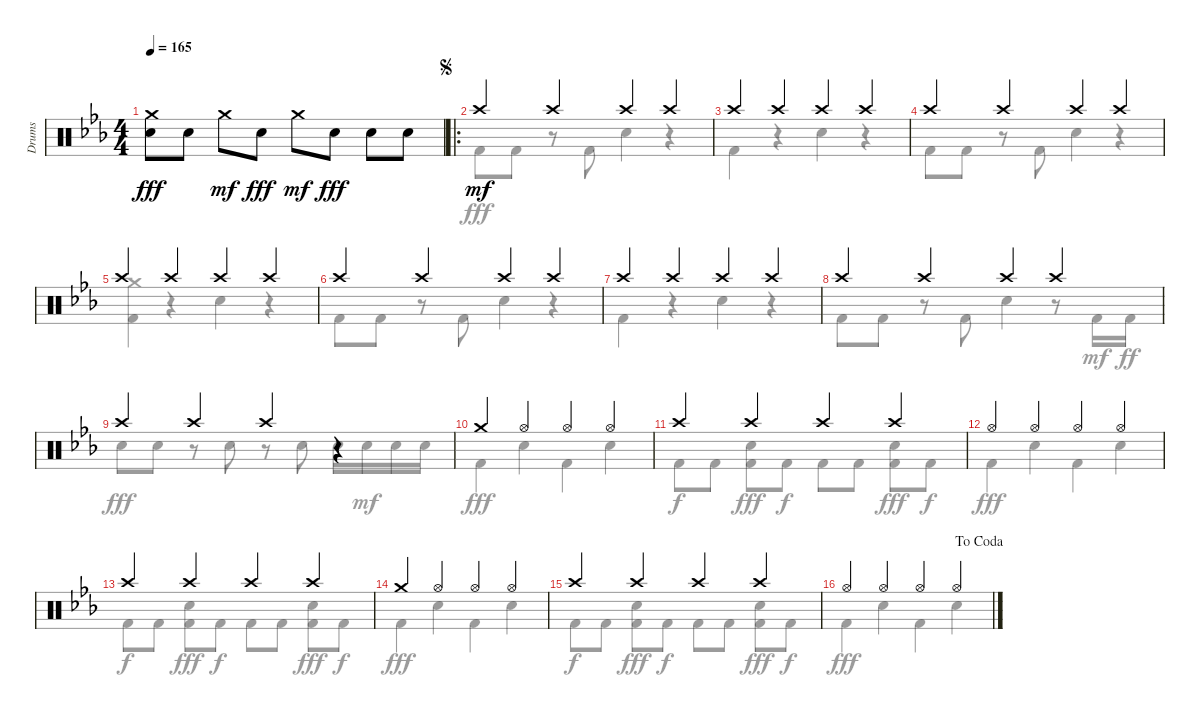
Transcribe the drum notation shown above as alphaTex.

\track ("Drums" "Drums") {instrument percussion}
\staff {score}
\articulation defaults
\voice
\ts (4 4)
\tempo 165
\clef neutral
\ks cminor
("Crash medium (hit)" "Electric Snare (hit)").8{dy fff} "Electric Snare (hit)".8 "Crash medium (hit)".8{dy mf} "Electric Snare (hit)".8{dy fff} "Crash medium (hit)".8{dy mf} "Electric Snare (hit)".8{dy fff} "Electric Snare (hit)".8 "Electric Snare (hit)".8 |
\ro
\jump segno "Crash high (hit)".4{dy mf} "Crash high (hit)".4 "Crash high (hit)".4 "Crash high (hit)".4
|
"Crash high (hit)".4 "Crash high (hit)".4 "Crash high (hit)".4 "Crash high (hit)".4 |
"Crash high (hit)".4 "Crash high (hit)".4 "Crash high (hit)".4 "Crash high (hit)".4 |
"Crash high (hit)".4 "Crash high (hit)".4 "Crash high (hit)".4 "Crash high (hit)".4 |
"Crash high (hit)".4 "Crash high (hit)".4 "Crash high (hit)".4 "Crash high (hit)".4 |
"Crash high (hit)".4 "Crash high (hit)".4 "Crash high (hit)".4 "Crash high (hit)".4 |
"Crash high (hit)".4 "Crash high (hit)".4 "Crash high (hit)".4 "Crash high (hit)".4 |
"Crash high (hit)".4 "Crash high (hit)".4 "Crash high (hit)".4 r.4 |
"Crash medium (hit)".4 "Hi-Hat (open)".4 "Hi-Hat (open)".4 "Hi-Hat (open)".4 |
"Crash high (hit)".4 "Crash high (hit)".4 "Crash high (hit)".4 "Crash high (hit)".4 |
"Hi-Hat (open)".4 "Hi-Hat (open)".4 "Hi-Hat (open)".4 "Hi-Hat (open)".4 |
"Crash high (hit)".4 "Crash high (hit)".4 "Crash high (hit)".4 "Crash high (hit)".4 |
"Crash medium (hit)".4 "Hi-Hat (open)".4 "Hi-Hat (open)".4 "Hi-Hat (open)".4 |
"Crash high (hit)".4 "Crash high (hit)".4 "Crash high (hit)".4 "Crash high (hit)".4 |
\jump dacoda "Hi-Hat (open)".4 "Hi-Hat (open)".4 "Hi-Hat (open)".4 "Hi-Hat (open)".4
\voice
\clef neutral
\ottava regular
\simile none
\ks cminor
|
"Kick (hit) 2".8{dy fff} "Kick (hit) 2".8 r.8 "Kick (hit) 2".8 "Electric Snare (hit)".4 r.4 |
"Kick (hit) 2".4 r.4 "Electric Snare (hit)".4 r.4 |
"Kick (hit) 2".8 "Kick (hit) 2".8 r.8 "Kick (hit) 2".8 "Electric Snare (hit)".4 r.4 |
("Crash medium (hit)" "Kick (hit) 2").4 r.4 "Electric Snare (hit)".4 r.4 |
"Kick (hit) 2".8 "Kick (hit) 2".8 r.8 "Kick (hit) 2".8 "Electric Snare (hit)".4 r.4 |
"Kick (hit) 2".4 r.4 "Electric Snare (hit)".4 r.4 |
"Kick (hit) 2".8 "Kick (hit) 2".8 r.8 "Kick (hit) 2".8 "Electric Snare (hit)".4 r.8 "Kick (hit) 2".16{dy mf} "Kick (hit) 2".16{dy ff} |
"Electric Snare (hit)".8{dy fff} "Electric Snare (hit)".8 r.8 "Electric Snare (hit)".8 r.8 "Electric Snare (hit)".8 "Electric Snare (hit)".16 "Electric Snare (hit)".16{dy mf} "Electric Snare (hit)".16 "Electric Snare (hit)".16 |
"Kick (hit) 2".4{dy fff} "Electric Snare (hit)".4 "Kick (hit) 2".4 "Electric Snare (hit)".4 |
"Kick (hit) 2".8{dy f} "Kick (hit) 2".8 ("Electric Snare (hit)" "Kick (hit) 2").8{dy fff} "Kick (hit) 2".8{dy f} "Kick (hit) 2".8 "Kick (hit) 2".8 ("Electric Snare (hit)" "Kick (hit) 2").8{dy fff} "Kick (hit) 2".8{dy f} |
"Kick (hit) 2".4{dy fff} "Electric Snare (hit)".4 "Kick (hit) 2".4 "Electric Snare (hit)".4 |
"Kick (hit) 2".8{dy f} "Kick (hit) 2".8 ("Electric Snare (hit)" "Kick (hit) 2").8{dy fff} "Kick (hit) 2".8{dy f} "Kick (hit) 2".8 "Kick (hit) 2".8 ("Electric Snare (hit)" "Kick (hit) 2").8{dy fff} "Kick (hit) 2".8{dy f} |
"Kick (hit) 2".4{dy fff} "Electric Snare (hit)".4 "Kick (hit) 2".4 "Electric Snare (hit)".4 |
"Kick (hit) 2".8{dy f} "Kick (hit) 2".8 ("Electric Snare (hit)" "Kick (hit) 2").8{dy fff} "Kick (hit) 2".8{dy f} "Kick (hit) 2".8 "Kick (hit) 2".8 ("Electric Snare (hit)" "Kick (hit) 2").8{dy fff} "Kick (hit) 2".8{dy f} |
"Kick (hit) 2".4{dy fff} "Electric Snare (hit)".4 "Kick (hit) 2".4 "Electric Snare (hit)".4
